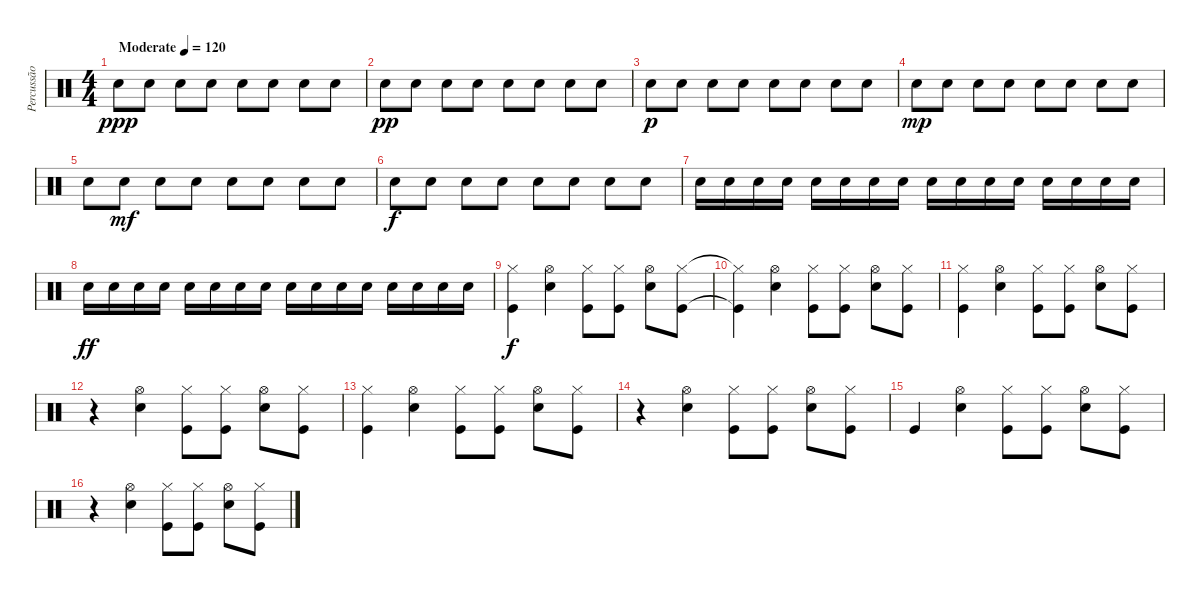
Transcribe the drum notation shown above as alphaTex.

\track ("Percussão" "Percussão") {instrument percussion}
\staff {score}
\articulation defaults
\ts (4 4)
\tempo (120 "Moderate")
\clef neutral
\ks c "Snare (hit) 2".8{dy ppp} "Snare (hit) 2".8 "Snare (hit) 2".8 "Snare (hit) 2".8 "Snare (hit) 2".8 "Snare (hit) 2".8 "Snare (hit) 2".8 "Snare (hit) 2".8
|
"Snare (hit) 2".8{dy pp} "Snare (hit) 2".8 "Snare (hit) 2".8 "Snare (hit) 2".8 "Snare (hit) 2".8 "Snare (hit) 2".8 "Snare (hit) 2".8 "Snare (hit) 2".8 |
"Snare (hit) 2".8{dy p} "Snare (hit) 2".8 "Snare (hit) 2".8 "Snare (hit) 2".8 "Snare (hit) 2".8 "Snare (hit) 2".8 "Snare (hit) 2".8 "Snare (hit) 2".8 |
"Snare (hit) 2".8{dy mp} "Snare (hit) 2".8 "Snare (hit) 2".8 "Snare (hit) 2".8 "Snare (hit) 2".8 "Snare (hit) 2".8 "Snare (hit) 2".8 "Snare (hit) 2".8 |
"Snare (hit) 2".8 "Snare (hit) 2".8{dy mf} "Snare (hit) 2".8 "Snare (hit) 2".8 "Snare (hit) 2".8 "Snare (hit) 2".8 "Snare (hit) 2".8 "Snare (hit) 2".8 |
"Snare (hit) 2".8{dy f} "Snare (hit) 2".8 "Snare (hit) 2".8 "Snare (hit) 2".8 "Snare (hit) 2".8 "Snare (hit) 2".8 "Snare (hit) 2".8 "Snare (hit) 2".8 |
"Snare (hit) 2".16 "Snare (hit) 2".16 "Snare (hit) 2".16 "Snare (hit) 2".16 "Snare (hit) 2".16 "Snare (hit) 2".16 "Snare (hit) 2".16 "Snare (hit) 2".16 "Snare (hit) 2".16 "Snare (hit) 2".16 "Snare (hit) 2".16 "Snare (hit) 2".16 "Snare (hit) 2".16 "Snare (hit) 2".16 "Snare (hit) 2".16 "Snare (hit) 2".16 |
"Snare (hit) 2".16{dy ff} "Snare (hit) 2".16 "Snare (hit) 2".16 "Snare (hit) 2".16 "Snare (hit) 2".16 "Snare (hit) 2".16 "Snare (hit) 2".16 "Snare (hit) 2".16 "Snare (hit) 2".16 "Snare (hit) 2".16 "Snare (hit) 2".16 "Snare (hit) 2".16 "Snare (hit) 2".16 "Snare (hit) 2".16 "Snare (hit) 2".16 "Snare (hit) 2".16 |
("Hi-Hat (closed)" "Kick (hit)").4{dy f} ("Hi-Hat (open)" "Snare (hit) 2").4 ("Hi-Hat (closed)" "Kick (hit)").8 ("Hi-Hat (closed)" "Kick (hit)").8 ("Hi-Hat (open)" "Snare (hit) 2").8 ("Hi-Hat (closed)" "Kick (hit)").8 |
("Hi-Hat (closed)"{t} "Kick (hit)"{t}).4 ("Hi-Hat (open)" "Snare (hit) 2").4 ("Hi-Hat (closed)" "Kick (hit)").8 ("Hi-Hat (closed)" "Kick (hit)").8 ("Hi-Hat (open)" "Snare (hit) 2").8 ("Hi-Hat (closed)" "Kick (hit)").8 |
("Hi-Hat (closed)" "Kick (hit)").4 ("Hi-Hat (open)" "Snare (hit) 2").4 ("Hi-Hat (closed)" "Kick (hit)").8 ("Hi-Hat (closed)" "Kick (hit)").8 ("Hi-Hat (open)" "Snare (hit) 2").8 ("Hi-Hat (closed)" "Kick (hit)").8 |
r.4 ("Hi-Hat (open)" "Snare (hit) 2").4 ("Hi-Hat (closed)" "Kick (hit)").8 ("Hi-Hat (closed)" "Kick (hit)").8 ("Hi-Hat (open)" "Snare (hit) 2").8 ("Hi-Hat (closed)" "Kick (hit)").8 |
("Hi-Hat (closed)" "Kick (hit)").4 ("Hi-Hat (open)" "Snare (hit) 2").4 ("Hi-Hat (closed)" "Kick (hit)").8 ("Hi-Hat (closed)" "Kick (hit)").8 ("Hi-Hat (open)" "Snare (hit) 2").8 ("Hi-Hat (closed)" "Kick (hit)").8 |
r.4 ("Hi-Hat (open)" "Snare (hit) 2").4 ("Hi-Hat (closed)" "Kick (hit)").8 ("Hi-Hat (closed)" "Kick (hit)").8 ("Hi-Hat (open)" "Snare (hit) 2").8 ("Hi-Hat (closed)" "Kick (hit)").8 |
"Kick (hit)".4 ("Hi-Hat (open)" "Snare (hit) 2").4 ("Hi-Hat (closed)" "Kick (hit)").8 ("Hi-Hat (closed)" "Kick (hit)").8 ("Hi-Hat (open)" "Snare (hit) 2").8 ("Hi-Hat (closed)" "Kick (hit)").8 |
r.4 ("Hi-Hat (open)" "Snare (hit) 2").4 ("Hi-Hat (closed)" "Kick (hit)").8 ("Hi-Hat (closed)" "Kick (hit)").8 ("Hi-Hat (open)" "Snare (hit) 2").8 ("Hi-Hat (closed)" "Kick (hit)").8
